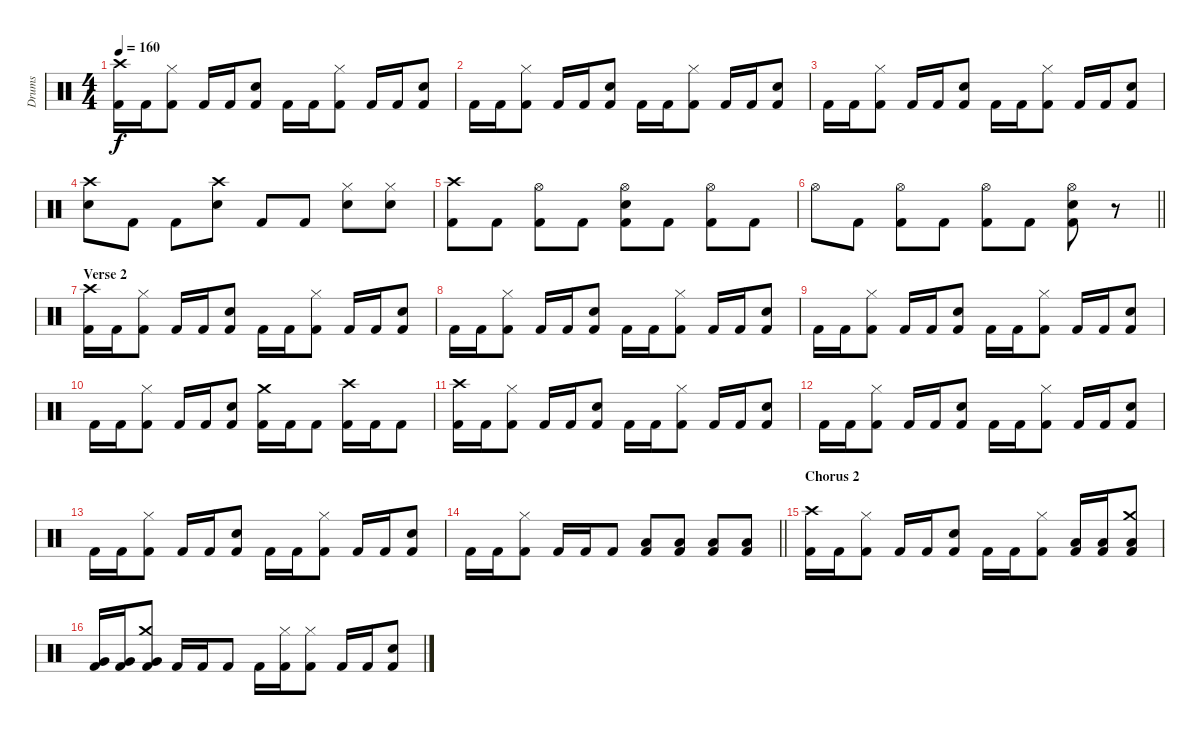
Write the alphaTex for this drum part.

\track ("Drums" "Drums") {instrument percussion}
\staff {score}
\articulation defaults
\ts (4 4)
\tempo 160
\clef neutral
\ks c
("Crash high (hit)" "Kick (hit) 2").16{dy f} "Kick (hit) 2".16 ("Hi-Hat (closed)" "Kick (hit) 2").8 "Kick (hit) 2".16 "Kick (hit) 2".16 ("Electric Snare (hit)" "Kick (hit) 2").8 "Kick (hit) 2".16 "Kick (hit) 2".16 ("Hi-Hat (closed)" "Kick (hit) 2").8 "Kick (hit) 2".16 "Kick (hit) 2".16 ("Electric Snare (hit)" "Kick (hit) 2").8 |
"Kick (hit) 2".16 "Kick (hit) 2".16 ("Hi-Hat (closed)" "Kick (hit) 2").8 "Kick (hit) 2".16 "Kick (hit) 2".16 ("Electric Snare (hit)" "Kick (hit) 2").8 "Kick (hit) 2".16 "Kick (hit) 2".16 ("Hi-Hat (closed)" "Kick (hit) 2").8 "Kick (hit) 2".16 "Kick (hit) 2".16 ("Electric Snare (hit)" "Kick (hit) 2").8 |
"Kick (hit) 2".16 "Kick (hit) 2".16 ("Hi-Hat (closed)" "Kick (hit) 2").8 "Kick (hit) 2".16 "Kick (hit) 2".16 ("Electric Snare (hit)" "Kick (hit) 2").8 "Kick (hit) 2".16 "Kick (hit) 2".16 ("Hi-Hat (closed)" "Kick (hit) 2").8 "Kick (hit) 2".16 "Kick (hit) 2".16 ("Electric Snare (hit)" "Kick (hit) 2").8 |
("Crash high (hit)" "Electric Snare (hit)").8 "Kick (hit) 2".8 "Kick (hit) 2".8 ("Crash high (hit)" "Electric Snare (hit)").8 "Kick (hit) 2".8 "Kick (hit) 2".8 ("Hi-Hat (closed)" "Electric Snare (hit)").8 ("Hi-Hat (closed)" "Electric Snare (hit)").8 |
("Crash high (hit)" "Kick (hit) 2").8 "Kick (hit) 2".8 ("Hi-Hat (open)" "Kick (hit) 2").8 "Kick (hit) 2".8 ("Hi-Hat (open)" "Electric Snare (hit)" "Kick (hit) 2").8 "Kick (hit) 2".8 ("Hi-Hat (open)" "Kick (hit) 2").8 "Kick (hit) 2".8 |
\barLineRight lightlight "Hi-Hat (open)".8 "Kick (hit) 2".8
("Hi-Hat (open)" "Kick (hit) 2").8 "Kick (hit) 2".8 ("Hi-Hat (open)" "Kick (hit) 2").8 "Kick (hit) 2".8 ("Hi-Hat (open)" "Electric Snare (hit)" "Kick (hit) 2").8 r.8 |
\section ("" "Verse 2")
("Crash high (hit)" "Kick (hit) 2").16 "Kick (hit) 2".16 ("Hi-Hat (closed)" "Kick (hit) 2").8 "Kick (hit) 2".16 "Kick (hit) 2".16 ("Electric Snare (hit)" "Kick (hit) 2").8 "Kick (hit) 2".16 "Kick (hit) 2".16 ("Hi-Hat (closed)" "Kick (hit) 2").8 "Kick (hit) 2".16 "Kick (hit) 2".16 ("Electric Snare (hit)" "Kick (hit) 2").8 |
"Kick (hit) 2".16 "Kick (hit) 2".16 ("Hi-Hat (closed)" "Kick (hit) 2").8 "Kick (hit) 2".16 "Kick (hit) 2".16 ("Electric Snare (hit)" "Kick (hit) 2").8 "Kick (hit) 2".16 "Kick (hit) 2".16 ("Hi-Hat (closed)" "Kick (hit) 2").8 "Kick (hit) 2".16 "Kick (hit) 2".16 ("Electric Snare (hit)" "Kick (hit) 2").8 |
"Kick (hit) 2".16 "Kick (hit) 2".16 ("Hi-Hat (closed)" "Kick (hit) 2").8 "Kick (hit) 2".16 "Kick (hit) 2".16 ("Electric Snare (hit)" "Kick (hit) 2").8 "Kick (hit) 2".16 "Kick (hit) 2".16 ("Hi-Hat (closed)" "Kick (hit) 2").8 "Kick (hit) 2".16 "Kick (hit) 2".16 ("Electric Snare (hit)" "Kick (hit) 2").8 |
"Kick (hit) 2".16 "Kick (hit) 2".16 ("Hi-Hat (closed)" "Kick (hit) 2").8 "Kick (hit) 2".16 "Kick (hit) 2".16 ("Electric Snare (hit)" "Kick (hit) 2").8 ("Crash medium (hit)" "Kick (hit) 2").16 "Kick (hit) 2".16 "Kick (hit) 2".8 ("Crash high (hit)" "Kick (hit) 2").16 "Kick (hit) 2".16 "Kick (hit) 2".8 |
("Crash high (hit)" "Kick (hit) 2").16 "Kick (hit) 2".16 ("Hi-Hat (closed)" "Kick (hit) 2").8 "Kick (hit) 2".16 "Kick (hit) 2".16 ("Electric Snare (hit)" "Kick (hit) 2").8 "Kick (hit) 2".16 "Kick (hit) 2".16 ("Hi-Hat (closed)" "Kick (hit) 2").8 "Kick (hit) 2".16 "Kick (hit) 2".16 ("Electric Snare (hit)" "Kick (hit) 2").8 |
"Kick (hit) 2".16 "Kick (hit) 2".16 ("Hi-Hat (closed)" "Kick (hit) 2").8 "Kick (hit) 2".16 "Kick (hit) 2".16 ("Electric Snare (hit)" "Kick (hit) 2").8 "Kick (hit) 2".16 "Kick (hit) 2".16 ("Hi-Hat (closed)" "Kick (hit) 2").8 "Kick (hit) 2".16 "Kick (hit) 2".16 ("Electric Snare (hit)" "Kick (hit) 2").8 |
"Kick (hit) 2".16 "Kick (hit) 2".16 ("Hi-Hat (closed)" "Kick (hit) 2").8 "Kick (hit) 2".16 "Kick (hit) 2".16 ("Electric Snare (hit)" "Kick (hit) 2").8 "Kick (hit) 2".16 "Kick (hit) 2".16 ("Hi-Hat (closed)" "Kick (hit) 2").8 "Kick (hit) 2".16 "Kick (hit) 2".16 ("Electric Snare (hit)" "Kick (hit) 2").8 |
\barLineRight lightlight "Kick (hit) 2".16 "Kick (hit) 2".16
("Hi-Hat (closed)" "Kick (hit) 2").8 "Kick (hit) 2".16 "Kick (hit) 2".16 "Kick (hit) 2".8 ("Low Floor Tom (hit)" "Kick (hit) 2").8 ("Low Floor Tom (hit)" "Kick (hit) 2").8 ("Low Floor Tom (hit)" "Kick (hit) 2").8 ("Low Floor Tom (hit)" "Kick (hit) 2").8 |
\section ("" "Chorus 2")
("Crash high (hit)" "Kick (hit) 2").16 "Kick (hit) 2".16 ("Hi-Hat (closed)" "Kick (hit) 2").8 "Kick (hit) 2".16 "Kick (hit) 2".16 ("Electric Snare (hit)" "Kick (hit) 2").8 "Kick (hit) 2".16 "Kick (hit) 2".16 ("Hi-Hat (closed)" "Kick (hit) 2").8 ("Low Tom (hit)" "Kick (hit) 2").16 ("Low Tom (hit)" "Kick (hit) 2").16 ("Crash medium (hit)" "Low Tom (hit)" "Kick (hit) 2").8 |
("Very Low Tom (hit)" "Kick (hit) 2").16 ("Very Low Tom (hit)" "Kick (hit) 2").16 ("Crash medium (hit)" "Very Low Tom (hit)" "Kick (hit) 2").8 "Kick (hit) 2".16 "Kick (hit) 2".16 "Kick (hit) 2".8 "Kick (hit) 2".16 ("Hi-Hat (closed)" "Kick (hit) 2").16 ("Hi-Hat (closed)" "Kick (hit) 2").8 "Kick (hit) 2".16 "Kick (hit) 2".16 ("Electric Snare (hit)" "Kick (hit) 2").8
